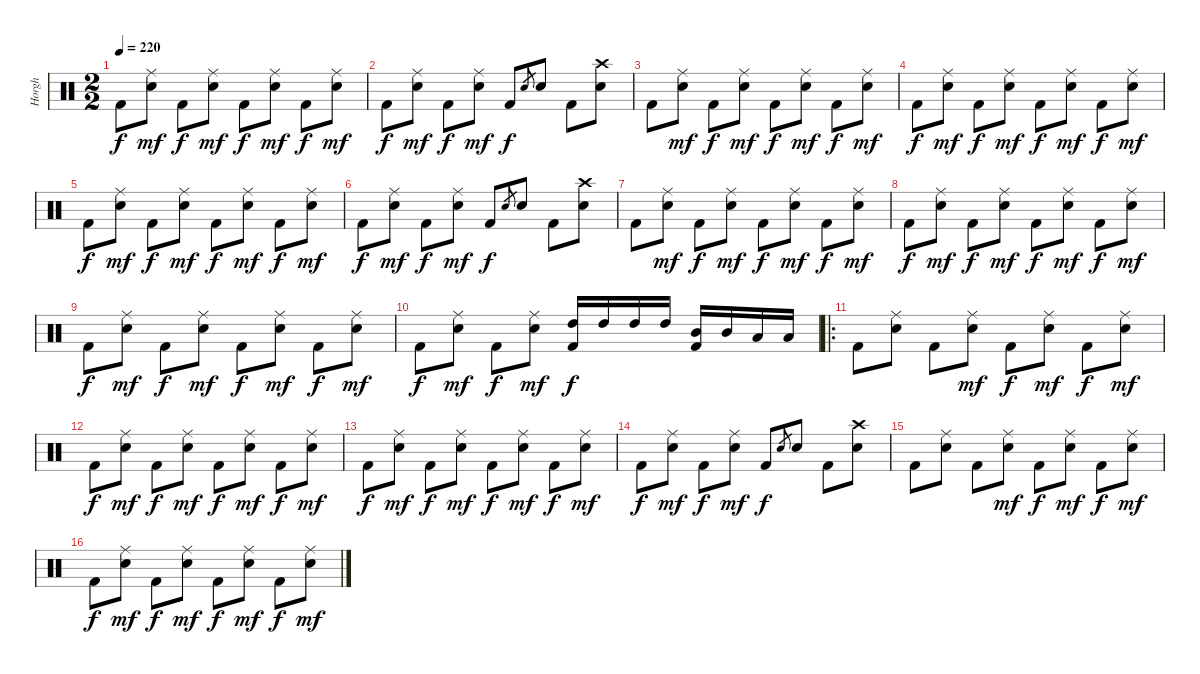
\track ("Horgh" "Horgh") {instrument percussion}
\staff {score}
\articulation defaults
\ts (2 2)
\tempo 220
\clef neutral
\ks c "Kick (hit) 2".8{dy f}
("Ride (middle)" "Electric Snare (hit)").8{dy mf} "Kick (hit) 2".8{dy f} ("Ride (middle)" "Electric Snare (hit)").8{dy mf} "Kick (hit) 2".8{dy f} ("Ride (middle)" "Electric Snare (hit)").8{dy mf} "Kick (hit) 2".8{dy f} ("Ride (middle)" "Electric Snare (hit)").8{dy mf} |
"Kick (hit) 2".8{dy f} ("Ride (middle)" "Electric Snare (hit)").8{dy mf} "Kick (hit) 2".8{dy f} ("Ride (middle)" "Electric Snare (hit)").8{dy mf} "Kick (hit) 2".8{dy f} "Electric Snare (hit)".8{gr} "Electric Snare (hit)".8 "Kick (hit) 2".8 ("Crash high (hit)" "Electric Snare (hit)").8 |
"Kick (hit) 2".8 ("Ride (middle)" "Electric Snare (hit)").8{dy mf} "Kick (hit) 2".8{dy f} ("Ride (middle)" "Electric Snare (hit)").8{dy mf} "Kick (hit) 2".8{dy f} ("Ride (middle)" "Electric Snare (hit)").8{dy mf} "Kick (hit) 2".8{dy f} ("Ride (middle)" "Electric Snare (hit)").8{dy mf} |
"Kick (hit) 2".8{dy f} ("Ride (middle)" "Electric Snare (hit)").8{dy mf} "Kick (hit) 2".8{dy f} ("Ride (middle)" "Electric Snare (hit)").8{dy mf} "Kick (hit) 2".8{dy f} ("Ride (middle)" "Electric Snare (hit)").8{dy mf} "Kick (hit) 2".8{dy f} ("Ride (middle)" "Electric Snare (hit)").8{dy mf} |
"Kick (hit) 2".8{dy f} ("Ride (middle)" "Electric Snare (hit)").8{dy mf} "Kick (hit) 2".8{dy f} ("Ride (middle)" "Electric Snare (hit)").8{dy mf} "Kick (hit) 2".8{dy f} ("Ride (middle)" "Electric Snare (hit)").8{dy mf} "Kick (hit) 2".8{dy f} ("Ride (middle)" "Electric Snare (hit)").8{dy mf} |
"Kick (hit) 2".8{dy f} ("Ride (middle)" "Electric Snare (hit)").8{dy mf} "Kick (hit) 2".8{dy f} ("Ride (middle)" "Electric Snare (hit)").8{dy mf} "Kick (hit) 2".8{dy f} "Electric Snare (hit)".8{gr} "Electric Snare (hit)".8 "Kick (hit) 2".8 ("Crash high (hit)" "Electric Snare (hit)").8 |
"Kick (hit) 2".8 ("Ride (middle)" "Electric Snare (hit)").8{dy mf} "Kick (hit) 2".8{dy f} ("Ride (middle)" "Electric Snare (hit)").8{dy mf} "Kick (hit) 2".8{dy f} ("Ride (middle)" "Electric Snare (hit)").8{dy mf} "Kick (hit) 2".8{dy f} ("Ride (middle)" "Electric Snare (hit)").8{dy mf} |
"Kick (hit) 2".8{dy f} ("Ride (middle)" "Electric Snare (hit)").8{dy mf} "Kick (hit) 2".8{dy f} ("Ride (middle)" "Electric Snare (hit)").8{dy mf} "Kick (hit) 2".8{dy f} ("Ride (middle)" "Electric Snare (hit)").8{dy mf} "Kick (hit) 2".8{dy f} ("Ride (middle)" "Electric Snare (hit)").8{dy mf} |
"Kick (hit) 2".8{dy f} ("Ride (middle)" "Electric Snare (hit)").8{dy mf} "Kick (hit) 2".8{dy f} ("Ride (middle)" "Electric Snare (hit)").8{dy mf} "Kick (hit) 2".8{dy f} ("Ride (middle)" "Electric Snare (hit)").8{dy mf} "Kick (hit) 2".8{dy f} ("Ride (middle)" "Electric Snare (hit)").8{dy mf} |
"Kick (hit) 2".8{dy f} ("Ride (middle)" "Electric Snare (hit)").8{dy mf} "Kick (hit) 2".8{dy f} ("Ride (middle)" "Electric Snare (hit)").8{dy mf} ("High Tom (hit)" "Kick (hit) 2").16{dy f} "High Tom (hit)".16 "High Tom (hit)".16 "High Tom (hit)".16 ("Mid Tom (hit)" "Kick (hit) 2").16 "Mid Tom (hit)".16 "Low Tom (hit)".16 "Low Tom (hit)".16 |
\ro "Kick (hit) 2".8
("Ride (middle)" "Electric Snare (hit)").8 "Kick (hit) 2".8 ("Ride (middle)" "Electric Snare (hit)").8{dy mf} "Kick (hit) 2".8{dy f} ("Ride (middle)" "Electric Snare (hit)").8{dy mf} "Kick (hit) 2".8{dy f} ("Ride (middle)" "Electric Snare (hit)").8{dy mf} |
"Kick (hit) 2".8{dy f} ("Ride (middle)" "Electric Snare (hit)").8{dy mf} "Kick (hit) 2".8{dy f} ("Ride (middle)" "Electric Snare (hit)").8{dy mf} "Kick (hit) 2".8{dy f} ("Ride (middle)" "Electric Snare (hit)").8{dy mf} "Kick (hit) 2".8{dy f} ("Ride (middle)" "Electric Snare (hit)").8{dy mf} |
"Kick (hit) 2".8{dy f} ("Ride (middle)" "Electric Snare (hit)").8{dy mf} "Kick (hit) 2".8{dy f} ("Ride (middle)" "Electric Snare (hit)").8{dy mf} "Kick (hit) 2".8{dy f} ("Ride (middle)" "Electric Snare (hit)").8{dy mf} "Kick (hit) 2".8{dy f} ("Ride (middle)" "Electric Snare (hit)").8{dy mf} |
"Kick (hit) 2".8{dy f} ("Ride (middle)" "Electric Snare (hit)").8{dy mf} "Kick (hit) 2".8{dy f} ("Ride (middle)" "Electric Snare (hit)").8{dy mf} "Kick (hit) 2".8{dy f} "Electric Snare (hit)".8{gr} "Electric Snare (hit)".8 "Kick (hit) 2".8 ("Crash high (hit)" "Electric Snare (hit)").8 |
"Kick (hit) 2".8 ("Ride (middle)" "Electric Snare (hit)").8 "Kick (hit) 2".8 ("Ride (middle)" "Electric Snare (hit)").8{dy mf} "Kick (hit) 2".8{dy f} ("Ride (middle)" "Electric Snare (hit)").8{dy mf} "Kick (hit) 2".8{dy f} ("Ride (middle)" "Electric Snare (hit)").8{dy mf} |
"Kick (hit) 2".8{dy f} ("Ride (middle)" "Electric Snare (hit)").8{dy mf} "Kick (hit) 2".8{dy f} ("Ride (middle)" "Electric Snare (hit)").8{dy mf} "Kick (hit) 2".8{dy f} ("Ride (middle)" "Electric Snare (hit)").8{dy mf} "Kick (hit) 2".8{dy f} ("Ride (middle)" "Electric Snare (hit)").8{dy mf}
